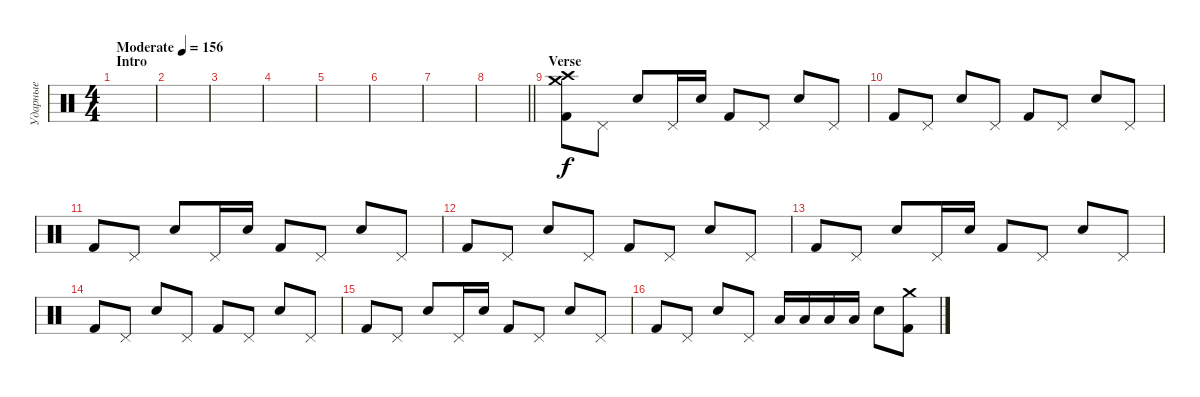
\track ("Ударные" "Ударные") {instrument percussion}
\staff {score}
\articulation defaults
\ts (4 4)
\section ("" "Intro")
\tempo (156 "Moderate")
\clef neutral
\ks c
|
|
|
|
|
|
|
\barLineRight lightlight
|
\section ("" "Verse")
("Crash high (hit)" "Crash medium (hit)" "Kick (hit) 2").8 "Pedal Hi-Hat (hit)".8 "Electric Snare (hit)".8 "Pedal Hi-Hat (hit)".16 "Electric Snare (hit)".16 "Kick (hit) 2".8 "Pedal Hi-Hat (hit)".8 "Electric Snare (hit)".8 "Pedal Hi-Hat (hit)".8 |
"Kick (hit) 2".8 "Pedal Hi-Hat (hit)".8 "Electric Snare (hit)".8 "Pedal Hi-Hat (hit)".8 "Kick (hit) 2".8 "Pedal Hi-Hat (hit)".8 "Electric Snare (hit)".8 "Pedal Hi-Hat (hit)".8 |
"Kick (hit) 2".8 "Pedal Hi-Hat (hit)".8 "Electric Snare (hit)".8 "Pedal Hi-Hat (hit)".16 "Electric Snare (hit)".16 "Kick (hit) 2".8 "Pedal Hi-Hat (hit)".8 "Electric Snare (hit)".8 "Pedal Hi-Hat (hit)".8 |
"Kick (hit) 2".8 "Pedal Hi-Hat (hit)".8 "Electric Snare (hit)".8 "Pedal Hi-Hat (hit)".8 "Kick (hit) 2".8 "Pedal Hi-Hat (hit)".8 "Electric Snare (hit)".8 "Pedal Hi-Hat (hit)".8 |
"Kick (hit) 2".8 "Pedal Hi-Hat (hit)".8 "Electric Snare (hit)".8 "Pedal Hi-Hat (hit)".16 "Electric Snare (hit)".16 "Kick (hit) 2".8 "Pedal Hi-Hat (hit)".8 "Electric Snare (hit)".8 "Pedal Hi-Hat (hit)".8 |
"Kick (hit) 2".8 "Pedal Hi-Hat (hit)".8 "Electric Snare (hit)".8 "Pedal Hi-Hat (hit)".8 "Kick (hit) 2".8 "Pedal Hi-Hat (hit)".8 "Electric Snare (hit)".8 "Pedal Hi-Hat (hit)".8 |
"Kick (hit) 2".8 "Pedal Hi-Hat (hit)".8 "Electric Snare (hit)".8 "Pedal Hi-Hat (hit)".16 "Electric Snare (hit)".16 "Kick (hit) 2".8 "Pedal Hi-Hat (hit)".8 "Electric Snare (hit)".8 "Pedal Hi-Hat (hit)".8 |
"Kick (hit) 2".8 "Pedal Hi-Hat (hit)".8 "Electric Snare (hit)".8 "Pedal Hi-Hat (hit)".8 "Low Tom (hit)".16 "Low Tom (hit)".16 "Low Tom (hit)".16 "Low Tom (hit)".16 "Electric Snare (hit)".8 ("Crash medium (hit)" "Kick (hit) 2").8
